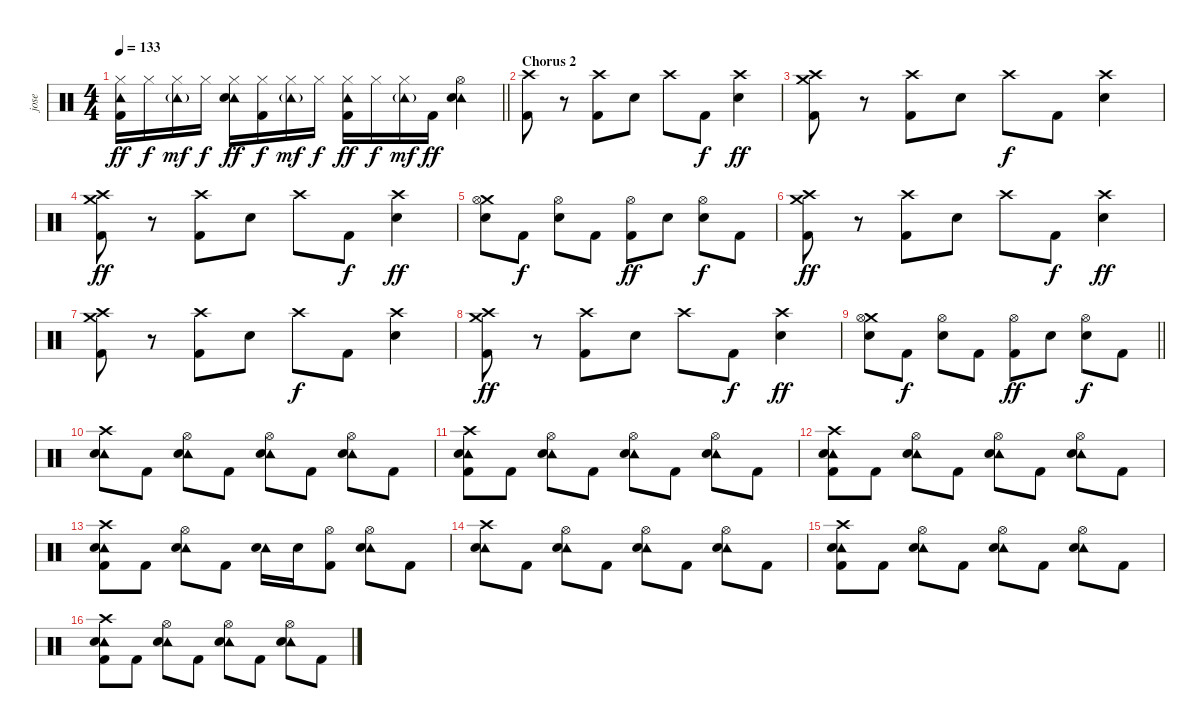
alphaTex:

\track ("jose" "jose") {instrument percussion}
\staff {score}
\articulation defaults
\ts (4 4)
\tempo 133
\clef neutral
\barLineRight lightlight
\ks c
("Tambourine (hit)" "Hi-Hat (closed)" "Kick (hit) 2").16{dy ff} "Hi-Hat (closed)".16{dy f} ("Tambourine (hit)"{g} "Hi-Hat (closed)").16{dy mf} "Hi-Hat (closed)".16{dy f} ("Tambourine (hit)" "Hi-Hat (closed)" "Snare (hit) 2").16{dy ff} ("Hi-Hat (closed)" "Kick (hit) 2").16{dy f} ("Tambourine (hit)"{g} "Hi-Hat (closed)").16{dy mf} "Hi-Hat (closed)".16{dy f} ("Tambourine (hit)" "Hi-Hat (closed)" "Kick (hit) 2").16{dy ff} "Hi-Hat (closed)".16{dy f} ("Tambourine (hit)"{g} "Hi-Hat (closed)").16{dy mf} "Kick (hit) 2".16{dy ff} ("Tambourine (hit)" "Hi-Hat (open)" "Snare (hit) 2").4 |
\section ("" "Chorus 2")
("Crash high (hit)" "Kick (hit) 2").8 r.8 ("Crash high (hit)" "Kick (hit) 2").8 "Snare (hit) 2".8 "Crash high (hit)".8 "Kick (hit) 2".8{dy f} ("Crash high (hit)" "Snare (hit) 2").4{dy ff} |
("Crash high (hit)" "Crash medium (hit)" "Kick (hit) 2").8 r.8 ("Crash high (hit)" "Kick (hit) 2").8 "Snare (hit) 2".8 "Crash high (hit)".8{dy f} "Kick (hit) 2".8 ("Crash high (hit)" "Snare (hit) 2").4 |
("Crash high (hit)" "Crash medium (hit)" "Kick (hit) 2").8{dy ff} r.8 ("Crash high (hit)" "Kick (hit) 2").8 "Snare (hit) 2".8 "Crash high (hit)".8 "Kick (hit) 2".8{dy f} ("Crash high (hit)" "Snare (hit) 2").4{dy ff} |
("Crash medium (hit)" "Hi-Hat (open)" "Snare (hit) 2").8 "Kick (hit) 2".8{dy f} ("Hi-Hat (open)" "Snare (hit) 2").8 "Kick (hit) 2".8 ("Hi-Hat (open)" "Kick (hit) 2").8{dy ff} "Snare (hit) 2".8 ("Hi-Hat (open)" "Snare (hit) 2").8{dy f} "Kick (hit) 2".8 |
("Crash high (hit)" "Crash medium (hit)" "Kick (hit) 2").8{dy ff} r.8 ("Crash high (hit)" "Kick (hit) 2").8 "Snare (hit) 2".8 "Crash high (hit)".8 "Kick (hit) 2".8{dy f} ("Crash high (hit)" "Snare (hit) 2").4{dy ff} |
("Crash high (hit)" "Crash medium (hit)" "Kick (hit) 2").8 r.8 ("Crash high (hit)" "Kick (hit) 2").8 "Snare (hit) 2".8 "Crash high (hit)".8{dy f} "Kick (hit) 2".8 ("Crash high (hit)" "Snare (hit) 2").4 |
("Crash high (hit)" "Crash medium (hit)" "Kick (hit) 2").8{dy ff} r.8 ("Crash high (hit)" "Kick (hit) 2").8 "Snare (hit) 2".8 "Crash high (hit)".8 "Kick (hit) 2".8{dy f} ("Crash high (hit)" "Snare (hit) 2").4{dy ff} |
\barLineRight lightlight
("Crash medium (hit)" "Hi-Hat (open)" "Snare (hit) 2").8 "Kick (hit) 2".8{dy f} ("Hi-Hat (open)" "Snare (hit) 2").8 "Kick (hit) 2".8 ("Hi-Hat (open)" "Kick (hit) 2").8{dy ff} "Snare (hit) 2".8 ("Hi-Hat (open)" "Snare (hit) 2").8{dy f} "Kick (hit) 2".8 |
("Tambourine (hit)" "Crash high (hit)" "Snare (hit) 2").8 "Kick (hit) 2".8 ("Tambourine (hit)" "Hi-Hat (open)" "Snare (hit) 2").8 "Kick (hit) 2".8 ("Tambourine (hit)" "Hi-Hat (open)" "Snare (hit) 2").8 "Kick (hit) 2".8 ("Tambourine (hit)" "Hi-Hat (open)" "Snare (hit) 2").8 "Kick (hit) 2".8 |
("Tambourine (hit)" "Crash high (hit)" "Snare (hit) 2" "Kick (hit) 2").8 "Kick (hit) 2".8 ("Tambourine (hit)" "Hi-Hat (open)" "Snare (hit) 2").8 "Kick (hit) 2".8 ("Tambourine (hit)" "Hi-Hat (open)" "Snare (hit) 2").8 "Kick (hit) 2".8 ("Tambourine (hit)" "Hi-Hat (open)" "Snare (hit) 2").8 "Kick (hit) 2".8 |
("Tambourine (hit)" "Crash high (hit)" "Snare (hit) 2" "Kick (hit) 2").8 "Kick (hit) 2".8 ("Tambourine (hit)" "Hi-Hat (open)" "Snare (hit) 2").8 "Kick (hit) 2".8 ("Tambourine (hit)" "Hi-Hat (open)" "Snare (hit) 2").8 "Kick (hit) 2".8 ("Tambourine (hit)" "Hi-Hat (open)" "Snare (hit) 2").8 "Kick (hit) 2".8 |
("Tambourine (hit)" "Crash high (hit)" "Snare (hit) 2" "Kick (hit) 2").8 "Kick (hit) 2".8 ("Tambourine (hit)" "Hi-Hat (open)" "Snare (hit) 2").8 "Kick (hit) 2".8 ("Tambourine (hit)" "Snare (hit) 2").16 "Snare (hit) 2".16 ("Hi-Hat (open)" "Kick (hit) 2").8 ("Tambourine (hit)" "Hi-Hat (open)" "Snare (hit) 2").8 "Kick (hit) 2".8 |
("Tambourine (hit)" "Crash high (hit)" "Snare (hit) 2").8 "Kick (hit) 2".8 ("Tambourine (hit)" "Hi-Hat (open)" "Snare (hit) 2").8 "Kick (hit) 2".8 ("Tambourine (hit)" "Hi-Hat (open)" "Snare (hit) 2").8 "Kick (hit) 2".8 ("Tambourine (hit)" "Hi-Hat (open)" "Snare (hit) 2").8 "Kick (hit) 2".8 |
("Tambourine (hit)" "Crash high (hit)" "Snare (hit) 2" "Kick (hit) 2").8 "Kick (hit) 2".8 ("Tambourine (hit)" "Hi-Hat (open)" "Snare (hit) 2").8 "Kick (hit) 2".8 ("Tambourine (hit)" "Hi-Hat (open)" "Snare (hit) 2").8 "Kick (hit) 2".8 ("Tambourine (hit)" "Hi-Hat (open)" "Snare (hit) 2").8 "Kick (hit) 2".8 |
("Tambourine (hit)" "Crash high (hit)" "Snare (hit) 2" "Kick (hit) 2").8 "Kick (hit) 2".8 ("Tambourine (hit)" "Hi-Hat (open)" "Snare (hit) 2").8 "Kick (hit) 2".8 ("Tambourine (hit)" "Hi-Hat (open)" "Snare (hit) 2").8 "Kick (hit) 2".8 ("Tambourine (hit)" "Hi-Hat (open)" "Snare (hit) 2").8 "Kick (hit) 2".8
